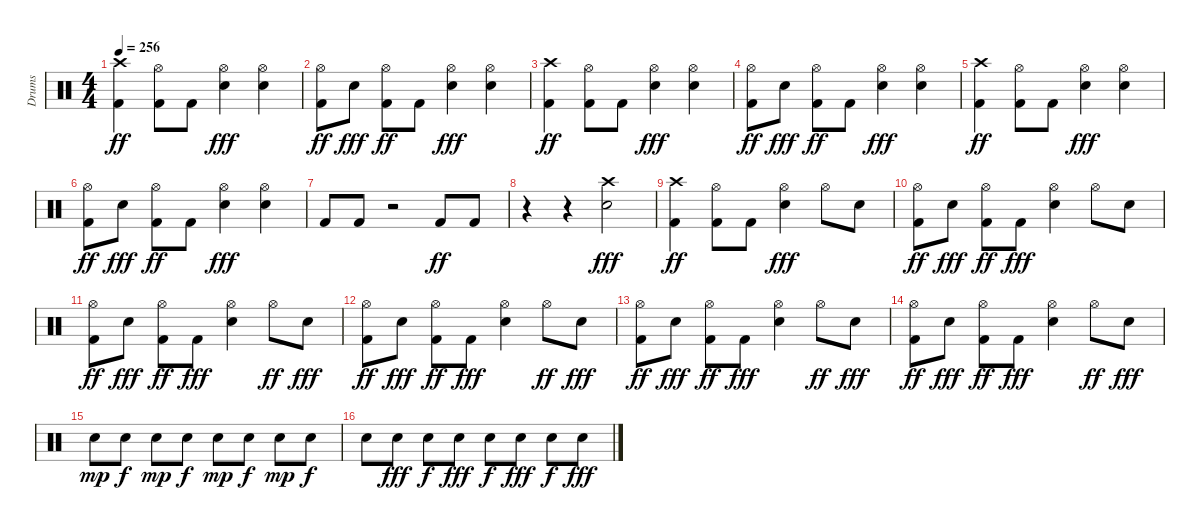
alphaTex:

\track ("Drums" "Drums") {instrument percussion}
\staff {score}
\articulation defaults
\ts (4 4)
\tempo 256
\clef neutral
\ks c
("Crash high (hit)" "Kick (hit) 2").4{dy ff} ("Hi-Hat (open)" "Kick (hit) 2").8 "Kick (hit) 2".8 ("Hi-Hat (open)" "Electric Snare (hit)").4{dy fff} ("Hi-Hat (open)" "Electric Snare (hit)").4 |
("Hi-Hat (open)" "Kick (hit) 2").8{dy ff} "Electric Snare (hit)".8{dy fff} ("Hi-Hat (open)" "Kick (hit) 2").8{dy ff} "Kick (hit) 2".8 ("Hi-Hat (open)" "Electric Snare (hit)").4{dy fff} ("Hi-Hat (open)" "Electric Snare (hit)").4 |
("Crash high (hit)" "Kick (hit) 2").4{dy ff} ("Hi-Hat (open)" "Kick (hit) 2").8 "Kick (hit) 2".8 ("Hi-Hat (open)" "Electric Snare (hit)").4{dy fff} ("Hi-Hat (open)" "Electric Snare (hit)").4 |
("Hi-Hat (open)" "Kick (hit) 2").8{dy ff} "Electric Snare (hit)".8{dy fff} ("Hi-Hat (open)" "Kick (hit) 2").8{dy ff} "Kick (hit) 2".8 ("Hi-Hat (open)" "Electric Snare (hit)").4{dy fff} ("Hi-Hat (open)" "Electric Snare (hit)").4 |
("Crash high (hit)" "Kick (hit) 2").4{dy ff} ("Hi-Hat (open)" "Kick (hit) 2").8 "Kick (hit) 2".8 ("Hi-Hat (open)" "Electric Snare (hit)").4{dy fff} ("Hi-Hat (open)" "Electric Snare (hit)").4 |
("Hi-Hat (open)" "Kick (hit) 2").8{dy ff} "Electric Snare (hit)".8{dy fff} ("Hi-Hat (open)" "Kick (hit) 2").8{dy ff} "Kick (hit) 2".8 ("Hi-Hat (open)" "Electric Snare (hit)").4{dy fff} ("Hi-Hat (open)" "Electric Snare (hit)").4 |
"Kick (hit) 2".8 "Kick (hit) 2".8 r.2 "Kick (hit) 2".8{dy ff} "Kick (hit) 2".8 |
r.4 r.4 ("Crash high (hit)" "Electric Snare (hit)").2{dy fff} |
("Crash high (hit)" "Kick (hit) 2").4{dy ff} ("Hi-Hat (open)" "Kick (hit) 2").8 "Kick (hit) 2".8 ("Hi-Hat (open)" "Electric Snare (hit)").4{dy fff} "Hi-Hat (open)".8 "Electric Snare (hit)".8 |
("Hi-Hat (open)" "Kick (hit) 2").8{dy ff} "Electric Snare (hit)".8{dy fff} ("Hi-Hat (open)" "Kick (hit) 2").8{dy ff} "Kick (hit) 2".8{dy fff} ("Hi-Hat (open)" "Electric Snare (hit)").4 "Hi-Hat (open)".8 "Electric Snare (hit)".8 |
("Hi-Hat (open)" "Kick (hit) 2").8{dy ff} "Electric Snare (hit)".8{dy fff} ("Hi-Hat (open)" "Kick (hit) 2").8{dy ff} "Kick (hit) 2".8{dy fff} ("Hi-Hat (open)" "Electric Snare (hit)").4 "Hi-Hat (open)".8{dy ff} "Electric Snare (hit)".8{dy fff} |
("Hi-Hat (open)" "Kick (hit) 2").8{dy ff} "Electric Snare (hit)".8{dy fff} ("Hi-Hat (open)" "Kick (hit) 2").8{dy ff} "Kick (hit) 2".8{dy fff} ("Hi-Hat (open)" "Electric Snare (hit)").4 "Hi-Hat (open)".8{dy ff} "Electric Snare (hit)".8{dy fff} |
("Hi-Hat (open)" "Kick (hit) 2").8{dy ff} "Electric Snare (hit)".8{dy fff} ("Hi-Hat (open)" "Kick (hit) 2").8{dy ff} "Kick (hit) 2".8{dy fff} ("Hi-Hat (open)" "Electric Snare (hit)").4 "Hi-Hat (open)".8{dy ff} "Electric Snare (hit)".8{dy fff} |
("Hi-Hat (open)" "Kick (hit) 2").8{dy ff} "Electric Snare (hit)".8{dy fff} ("Hi-Hat (open)" "Kick (hit) 2").8{dy ff} "Kick (hit) 2".8{dy fff} ("Hi-Hat (open)" "Electric Snare (hit)").4 "Hi-Hat (open)".8{dy ff} "Electric Snare (hit)".8{dy fff} |
"Electric Snare (hit)".8{dy mp} "Electric Snare (hit)".8{dy f} "Electric Snare (hit)".8{dy mp} "Electric Snare (hit)".8{dy f} "Electric Snare (hit)".8{dy mp} "Electric Snare (hit)".8{dy f} "Electric Snare (hit)".8{dy mp} "Electric Snare (hit)".8{dy f} |
"Electric Snare (hit)".8 "Electric Snare (hit)".8{dy fff} "Electric Snare (hit)".8{dy f} "Electric Snare (hit)".8{dy fff} "Electric Snare (hit)".8{dy f} "Electric Snare (hit)".8{dy fff} "Electric Snare (hit)".8{dy f} "Electric Snare (hit)".8{dy fff}
